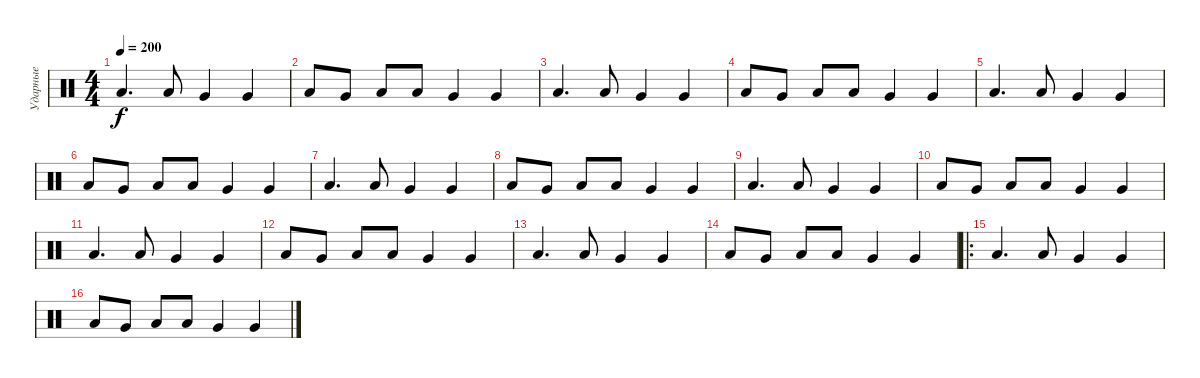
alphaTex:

\track ("Ударные" "Ударные") {instrument percussion}
\staff {score}
\articulation defaults
\ts (4 4)
\tempo 200
\clef neutral
\ks c "Low Floor Tom (hit)".4{d dy f} "Low Floor Tom (hit)".8 "Very Low Tom (hit)".4 "Very Low Tom (hit)".4
|
"Low Floor Tom (hit)".8 "Very Low Tom (hit)".8 "Low Floor Tom (hit)".8 "Low Floor Tom (hit)".8 "Very Low Tom (hit)".4 "Very Low Tom (hit)".4 |
"Low Floor Tom (hit)".4{d} "Low Floor Tom (hit)".8 "Very Low Tom (hit)".4 "Very Low Tom (hit)".4 |
"Low Floor Tom (hit)".8 "Very Low Tom (hit)".8 "Low Floor Tom (hit)".8 "Low Floor Tom (hit)".8 "Very Low Tom (hit)".4 "Very Low Tom (hit)".4 |
"Low Floor Tom (hit)".4{d} "Low Floor Tom (hit)".8 "Very Low Tom (hit)".4 "Very Low Tom (hit)".4 |
"Low Floor Tom (hit)".8 "Very Low Tom (hit)".8 "Low Floor Tom (hit)".8 "Low Floor Tom (hit)".8 "Very Low Tom (hit)".4 "Very Low Tom (hit)".4 |
"Low Floor Tom (hit)".4{d} "Low Floor Tom (hit)".8 "Very Low Tom (hit)".4 "Very Low Tom (hit)".4 |
"Low Floor Tom (hit)".8 "Very Low Tom (hit)".8 "Low Floor Tom (hit)".8 "Low Floor Tom (hit)".8 "Very Low Tom (hit)".4 "Very Low Tom (hit)".4 |
"Low Floor Tom (hit)".4{d} "Low Floor Tom (hit)".8 "Very Low Tom (hit)".4 "Very Low Tom (hit)".4 |
"Low Floor Tom (hit)".8 "Very Low Tom (hit)".8 "Low Floor Tom (hit)".8 "Low Floor Tom (hit)".8 "Very Low Tom (hit)".4 "Very Low Tom (hit)".4 |
"Low Floor Tom (hit)".4{d} "Low Floor Tom (hit)".8 "Very Low Tom (hit)".4 "Very Low Tom (hit)".4 |
"Low Floor Tom (hit)".8 "Very Low Tom (hit)".8 "Low Floor Tom (hit)".8 "Low Floor Tom (hit)".8 "Very Low Tom (hit)".4 "Very Low Tom (hit)".4 |
"Low Floor Tom (hit)".4{d} "Low Floor Tom (hit)".8 "Very Low Tom (hit)".4 "Very Low Tom (hit)".4 |
"Low Floor Tom (hit)".8 "Very Low Tom (hit)".8 "Low Floor Tom (hit)".8 "Low Floor Tom (hit)".8 "Very Low Tom (hit)".4 "Very Low Tom (hit)".4 |
\ro "Low Floor Tom (hit)".4{d} "Low Floor Tom (hit)".8 "Very Low Tom (hit)".4 "Very Low Tom (hit)".4
|
"Low Floor Tom (hit)".8 "Very Low Tom (hit)".8 "Low Floor Tom (hit)".8 "Low Floor Tom (hit)".8 "Very Low Tom (hit)".4 "Very Low Tom (hit)".4
